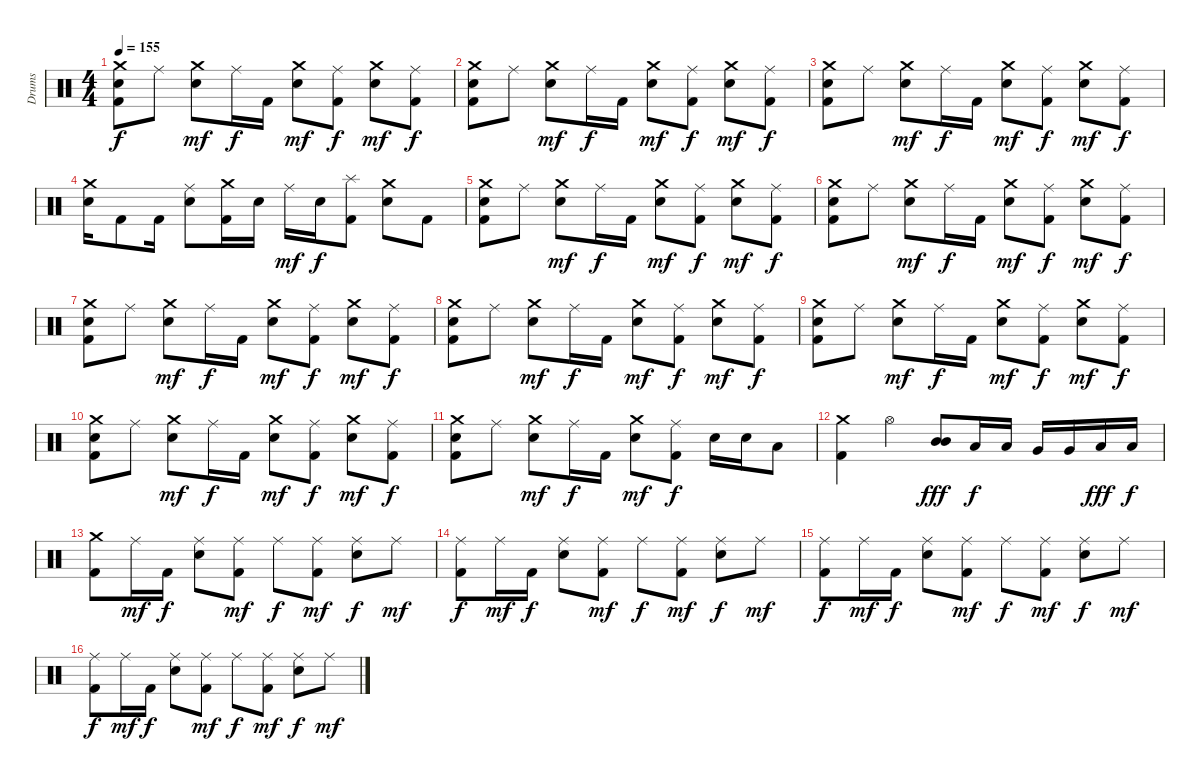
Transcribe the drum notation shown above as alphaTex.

\track ("Drums" "Drums") {instrument percussion}
\staff {score}
\articulation defaults
\ts (4 4)
\tempo 155
\clef neutral
\ks c
("Crash medium (hit)" "Snare (hit) 2" "Kick (hit) 2").8{dy f} "Ride (middle)".8 ("Crash medium (hit)" "Snare (hit) 2").8{dy mf} "Ride (middle)".16{dy f} "Kick (hit) 2".16 ("Crash medium (hit)" "Snare (hit) 2").8{dy mf} ("Ride (middle)" "Kick (hit) 2").8{dy f} ("Crash medium (hit)" "Snare (hit) 2").8{dy mf} ("Ride (middle)" "Kick (hit) 2").8{dy f} |
("Crash medium (hit)" "Snare (hit) 2" "Kick (hit) 2").8 "Ride (middle)".8 ("Crash medium (hit)" "Snare (hit) 2").8{dy mf} "Ride (middle)".16{dy f} "Kick (hit) 2".16 ("Crash medium (hit)" "Snare (hit) 2").8{dy mf} ("Ride (middle)" "Kick (hit) 2").8{dy f} ("Crash medium (hit)" "Snare (hit) 2").8{dy mf} ("Ride (middle)" "Kick (hit) 2").8{dy f} |
("Crash medium (hit)" "Snare (hit) 2" "Kick (hit) 2").8 "Ride (middle)".8 ("Crash medium (hit)" "Snare (hit) 2").8{dy mf} "Ride (middle)".16{dy f} "Kick (hit) 2".16 ("Crash medium (hit)" "Snare (hit) 2").8{dy mf} ("Ride (middle)" "Kick (hit) 2").8{dy f} ("Crash medium (hit)" "Snare (hit) 2").8{dy mf} ("Ride (middle)" "Kick (hit) 2").8{dy f} |
("Snare (hit) 2" "Crash medium (hit)").16 "Kick (hit) 2".8 "Kick (hit) 2".16 ("Ride (middle)" "Snare (hit) 2").8 ("Kick (hit) 2" "Crash medium (hit)").16 "Snare (hit) 2".16 "Ride (middle)".16{dy mf} "Snare (hit) 2".16{dy f} ("Kick (hit) 2" "Splash (hit)").8 ("Snare (hit) 2" "Crash medium (hit)").8 "Kick (hit) 2".8 |
("Crash medium (hit)" "Snare (hit) 2" "Kick (hit) 2").8 "Ride (middle)".8 ("Crash medium (hit)" "Snare (hit) 2").8{dy mf} "Ride (middle)".16{dy f} "Kick (hit) 2".16 ("Crash medium (hit)" "Snare (hit) 2").8{dy mf} ("Ride (middle)" "Kick (hit) 2").8{dy f} ("Crash medium (hit)" "Snare (hit) 2").8{dy mf} ("Ride (middle)" "Kick (hit) 2").8{dy f} |
("Crash medium (hit)" "Snare (hit) 2" "Kick (hit) 2").8 "Ride (middle)".8 ("Crash medium (hit)" "Snare (hit) 2").8{dy mf} "Ride (middle)".16{dy f} "Kick (hit) 2".16 ("Crash medium (hit)" "Snare (hit) 2").8{dy mf} ("Ride (middle)" "Kick (hit) 2").8{dy f} ("Crash medium (hit)" "Snare (hit) 2").8{dy mf} ("Ride (middle)" "Kick (hit) 2").8{dy f} |
("Crash medium (hit)" "Snare (hit) 2" "Kick (hit) 2").8 "Ride (middle)".8 ("Crash medium (hit)" "Snare (hit) 2").8{dy mf} "Ride (middle)".16{dy f} "Kick (hit) 2".16 ("Crash medium (hit)" "Snare (hit) 2").8{dy mf} ("Ride (middle)" "Kick (hit) 2").8{dy f} ("Crash medium (hit)" "Snare (hit) 2").8{dy mf} ("Ride (middle)" "Kick (hit) 2").8{dy f} |
("Crash medium (hit)" "Snare (hit) 2" "Kick (hit) 2").8 "Ride (middle)".8 ("Crash medium (hit)" "Snare (hit) 2").8{dy mf} "Ride (middle)".16{dy f} "Kick (hit) 2".16 ("Crash medium (hit)" "Snare (hit) 2").8{dy mf} ("Ride (middle)" "Kick (hit) 2").8{dy f} ("Crash medium (hit)" "Snare (hit) 2").8{dy mf} ("Ride (middle)" "Kick (hit) 2").8{dy f} |
("Crash medium (hit)" "Snare (hit) 2" "Kick (hit) 2").8 "Ride (middle)".8 ("Crash medium (hit)" "Snare (hit) 2").8{dy mf} "Ride (middle)".16{dy f} "Kick (hit) 2".16 ("Crash medium (hit)" "Snare (hit) 2").8{dy mf} ("Ride (middle)" "Kick (hit) 2").8{dy f} ("Crash medium (hit)" "Snare (hit) 2").8{dy mf} ("Ride (middle)" "Kick (hit) 2").8{dy f} |
("Crash medium (hit)" "Snare (hit) 2" "Kick (hit) 2").8 "Ride (middle)".8 ("Crash medium (hit)" "Snare (hit) 2").8{dy mf} "Ride (middle)".16{dy f} "Kick (hit) 2".16 ("Crash medium (hit)" "Snare (hit) 2").8{dy mf} ("Ride (middle)" "Kick (hit) 2").8{dy f} ("Crash medium (hit)" "Snare (hit) 2").8{dy mf} ("Ride (middle)" "Kick (hit) 2").8{dy f} |
("Crash medium (hit)" "Snare (hit) 2" "Kick (hit) 2").8 "Ride (middle)".8 ("Crash medium (hit)" "Snare (hit) 2").8{dy mf} "Ride (middle)".16{dy f} "Kick (hit) 2".16 ("Crash medium (hit)" "Snare (hit) 2").8{dy mf} ("Ride (middle)" "Kick (hit) 2").8{dy f} "Snare (hit) 2".16 "Snare (hit) 2".16 "Low Tom (hit)".8 |
("Kick (hit) 2" "Crash medium (hit)").4 "Hi-Hat (open)".4 ("Mid Tom (hit)" "Mid Tom (hit)").8{dy fff} "Low Tom (hit)".16{dy f} "Low Tom (hit)".16 "Very Low Tom (hit)".16 "Very Low Tom (hit)".16 "Low Floor Tom (hit)".16{dy fff} "Low Floor Tom (hit)".16{dy f} |
("Crash medium (hit)" "Kick (hit) 2").8 "Ride (middle)".16{dy mf} "Kick (hit) 2".16{dy f} ("Snare (hit) 2" "Ride (middle)").8 ("Ride (middle)" "Kick (hit) 2").8{dy mf} "Ride (middle)".8{dy f} ("Kick (hit) 2" "Ride (middle)").8{dy mf} ("Snare (hit) 2" "Ride (middle)").8{dy f} "Ride (middle)".8{dy mf} |
("Kick (hit) 2" "Ride (middle)").8{dy f} "Ride (middle)".16{dy mf} "Kick (hit) 2".16{dy f} ("Snare (hit) 2" "Ride (middle)").8 ("Ride (middle)" "Kick (hit) 2").8{dy mf} "Ride (middle)".8{dy f} ("Kick (hit) 2" "Ride (middle)").8{dy mf} ("Snare (hit) 2" "Ride (middle)").8{dy f} "Ride (middle)".8{dy mf} |
("Kick (hit) 2" "Ride (middle)").8{dy f} "Ride (middle)".16{dy mf} "Kick (hit) 2".16{dy f} ("Snare (hit) 2" "Ride (middle)").8 ("Ride (middle)" "Kick (hit) 2").8{dy mf} "Ride (middle)".8{dy f} ("Kick (hit) 2" "Ride (middle)").8{dy mf} ("Snare (hit) 2" "Ride (middle)").8{dy f} "Ride (middle)".8{dy mf} |
("Kick (hit) 2" "Ride (middle)").8{dy f} "Ride (middle)".16{dy mf} "Kick (hit) 2".16{dy f} ("Snare (hit) 2" "Ride (middle)").8 ("Ride (middle)" "Kick (hit) 2").8{dy mf} "Ride (middle)".8{dy f} ("Kick (hit) 2" "Ride (middle)").8{dy mf} ("Snare (hit) 2" "Ride (middle)").8{dy f} "Ride (middle)".8{dy mf}
